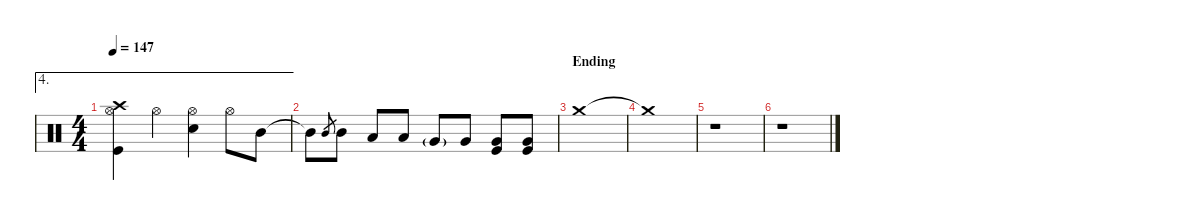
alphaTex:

\defaultSystemsLayout 4
\hideDynamics
\bracketExtendMode nobrackets
\singleTrackTrackNamePolicy hidden
\multiTrackTrackNamePolicy hidden
\firstSystemTrackNameMode fullname
\otherSystemsTrackNameOrientation horizontal
\track ("Percussion" "drm.") {instrument percussion}
\staff {score}
\articulation defaults
\ae 4
\ts (4 4)
\tempo 147
\clef neutral
\ks c
("Crash high (hit)" "Kick (hit)" "Hi-Hat (open)").4{dy mf} "Hi-Hat (open)".4 ("Snare (hit) 2" "Hi-Hat (open)").4{dy f} "Hi-Hat (open)".8{dy mf} "Mid Tom (hit)".8 |
"Mid Tom (hit)"{t}.8{dy f} "Mid Tom (hit)".8{gr dy mf} "Mid Tom (hit)".8{dy f} "Low Tom (hit)".8 "Low Tom (hit)".8 "Very Low Tom (hit)"{g}.8{dy mf} "Very Low Tom (hit)".8 ("Very Low Tom (hit)" "Kick (hit)").8{dy f} ("Very Low Tom (hit)" "Kick (hit)").8 |
\section ("" "Ending")
"Crash medium (hit)".1{dy ff} |
"Crash medium (hit)"{t}.1{dy f} |
r.1 |
\tempo (61 hide)
r.1
